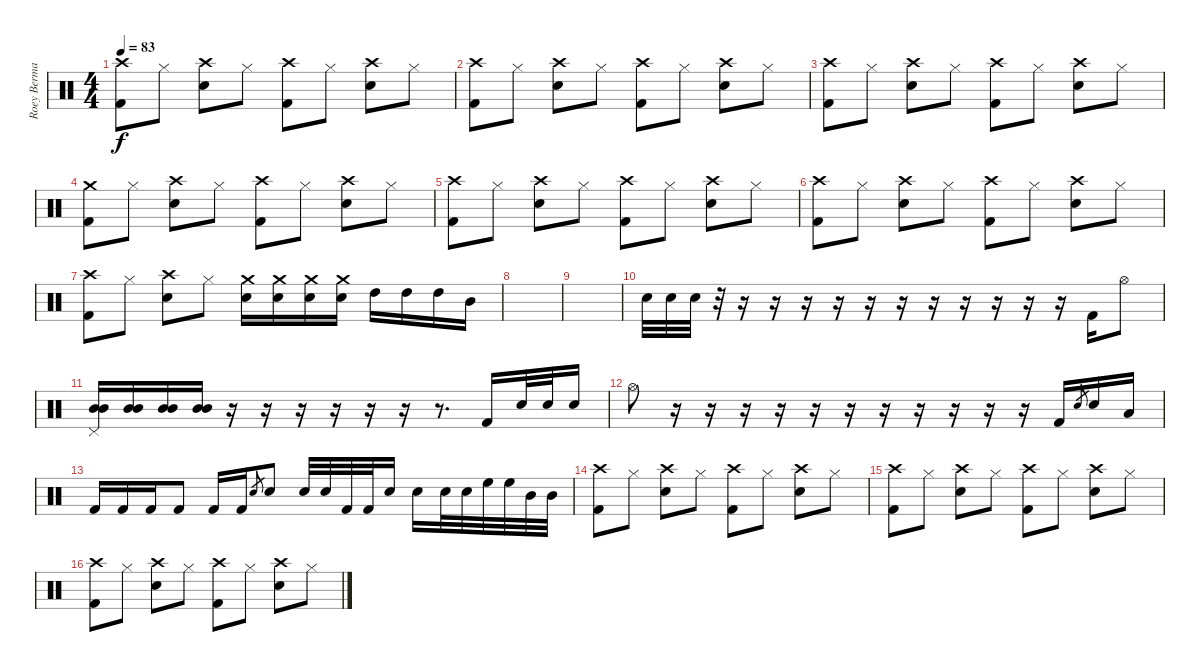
\track ("Roey Berman" "Roey Berma") {instrument percussion}
\staff {score}
\articulation defaults
\ts (4 4)
\tempo 83
\clef neutral
\ks c
("Crash high (hit)" "Kick (hit) 2").8{dy f} "Hi-Hat (closed)".8 ("Crash high (hit)" "Electric Snare (hit)").8 "Hi-Hat (closed)".8 ("Crash high (hit)" "Kick (hit) 2").8 "Hi-Hat (closed)".8 ("Crash high (hit)" "Electric Snare (hit)").8 "Hi-Hat (closed)".8 |
("Crash high (hit)" "Kick (hit) 2").8 "Hi-Hat (closed)".8 ("Crash high (hit)" "Electric Snare (hit)").8 "Hi-Hat (closed)".8 ("Crash high (hit)" "Kick (hit) 2").8 "Hi-Hat (closed)".8 ("Crash high (hit)" "Electric Snare (hit)").8 "Hi-Hat (closed)".8 |
("Crash high (hit)" "Kick (hit) 2").8 "Hi-Hat (closed)".8 ("Crash high (hit)" "Electric Snare (hit)").8 "Hi-Hat (closed)".8 ("Crash high (hit)" "Kick (hit) 2").8 "Hi-Hat (closed)".8 ("Crash high (hit)" "Electric Snare (hit)").8 "Hi-Hat (closed)".8 |
("Crash medium (hit)" "Kick (hit) 2").8 "Hi-Hat (closed)".8 ("Crash high (hit)" "Electric Snare (hit)").8 "Hi-Hat (closed)".8 ("Crash high (hit)" "Kick (hit) 2").8 "Hi-Hat (closed)".8 ("Crash high (hit)" "Electric Snare (hit)").8 "Hi-Hat (closed)".8 |
("Crash high (hit)" "Kick (hit) 2").8 "Hi-Hat (closed)".8 ("Crash high (hit)" "Electric Snare (hit)").8 "Hi-Hat (closed)".8 ("Crash high (hit)" "Kick (hit) 2").8 "Hi-Hat (closed)".8 ("Crash high (hit)" "Electric Snare (hit)").8 "Hi-Hat (closed)".8 |
("Crash high (hit)" "Kick (hit) 2").8 "Hi-Hat (closed)".8 ("Crash high (hit)" "Electric Snare (hit)").8 "Hi-Hat (closed)".8 ("Crash high (hit)" "Kick (hit) 2").8 "Hi-Hat (closed)".8 ("Crash high (hit)" "Electric Snare (hit)").8 "Hi-Hat (closed)".8 |
("Crash high (hit)" "Kick (hit) 2").8 "Hi-Hat (closed)".8 ("Crash high (hit)" "Electric Snare (hit)").8 "Hi-Hat (closed)".8 ("Crash medium (hit)" "Electric Snare (hit)").16 ("Crash medium (hit)" "Electric Snare (hit)").16 ("Crash medium (hit)" "Electric Snare (hit)").16 ("Crash medium (hit)" "Electric Snare (hit)").16 "High Tom (hit)".16 "High Tom (hit)".16 "High Tom (hit)".16 "Mid Tom (hit)".16 |
|
|
"Electric Snare (hit)".32 "Electric Snare (hit)".32 "Electric Snare (hit)".32 r.32 r.16 r.16 r.16 r.16 r.16 r.16 r.16 r.16 r.16 r.16 r.16 "Kick (hit) 2".16 "Hi-Hat (open)".8 |
("Pedal Hi-Hat (hit)" "Mid Tom (hit)" "Mid Tom (hit)").16 ("Mid Tom (hit)" "Mid Tom (hit)").16 ("Mid Tom (hit)" "Mid Tom (hit)").16 ("Mid Tom (hit)" "Mid Tom (hit)").16 r.16 r.16 r.16 r.16 r.16 r.16 r.8{d} "Kick (hit) 2".16 "Electric Snare (hit)".32 "Electric Snare (hit)".32 "Electric Snare (hit)".16 |
"Hi-Hat (open)".8 r.16 r.16 r.16 r.16 r.16 r.16 r.16 r.16 r.16 r.16 r.16 "Kick (hit) 2".16 "Electric Snare (hit)".8{gr} "Electric Snare (hit)".16 "Low Tom (hit)".16 |
"Kick (hit) 2".16 "Kick (hit) 2".16 "Kick (hit) 2".16 "Kick (hit) 2".8 "Kick (hit) 2".16 "Kick (hit) 2".16 "Electric Snare (hit)".8{gr} "Electric Snare (hit)".8 "Electric Snare (hit)".32 "Electric Snare (hit)".32 "Kick (hit) 2".32 "Kick (hit) 2".32 "Electric Snare (hit)".16 "Electric Snare (hit)".16 "Electric Snare (hit)".32 "Electric Snare (hit)".32 "High Floor Tom (hit)".32 "High Floor Tom (hit)".32 "Mid Tom (hit)".32 "Mid Tom (hit)".32 |
("Crash high (hit)" "Kick (hit) 2").8 "Hi-Hat (closed)".8 ("Crash high (hit)" "Electric Snare (hit)").8 "Hi-Hat (closed)".8 ("Crash high (hit)" "Kick (hit) 2").8 "Hi-Hat (closed)".8 ("Crash high (hit)" "Electric Snare (hit)").8 "Hi-Hat (closed)".8 |
("Crash high (hit)" "Kick (hit) 2").8 "Hi-Hat (closed)".8 ("Crash high (hit)" "Electric Snare (hit)").8 "Hi-Hat (closed)".8 ("Crash high (hit)" "Kick (hit) 2").8 "Hi-Hat (closed)".8 ("Crash high (hit)" "Electric Snare (hit)").8 "Hi-Hat (closed)".8 |
("Crash high (hit)" "Kick (hit) 2").8 "Hi-Hat (closed)".8 ("Crash high (hit)" "Electric Snare (hit)").8 "Hi-Hat (closed)".8 ("Crash high (hit)" "Kick (hit) 2").8 "Hi-Hat (closed)".8 ("Crash high (hit)" "Electric Snare (hit)").8 "Hi-Hat (closed)".8
